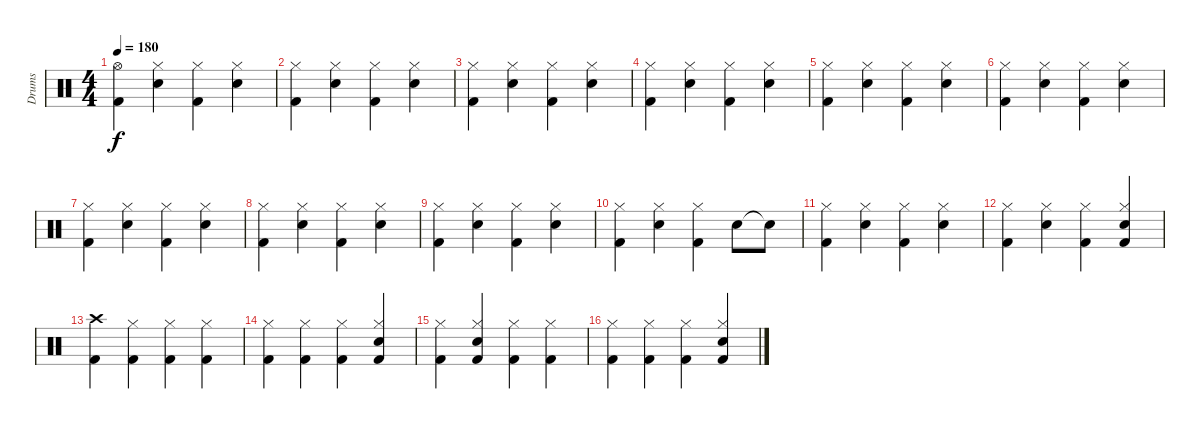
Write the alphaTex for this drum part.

\track ("Drums" "Drums") {instrument percussion}
\staff {score}
\articulation defaults
\ts (4 4)
\tempo 180
\clef neutral
\ks c
("Hi-Hat (open)" "Kick (hit) 2").4{dy f} ("Hi-Hat (closed)" "Snare (hit) 2").4 ("Hi-Hat (closed)" "Kick (hit) 2").4 ("Hi-Hat (closed)" "Snare (hit) 2").4 |
("Hi-Hat (closed)" "Kick (hit) 2").4 ("Hi-Hat (closed)" "Snare (hit) 2").4 ("Hi-Hat (closed)" "Kick (hit) 2").4 ("Hi-Hat (closed)" "Snare (hit) 2").4 |
("Hi-Hat (closed)" "Kick (hit) 2").4 ("Hi-Hat (closed)" "Snare (hit) 2").4 ("Hi-Hat (closed)" "Kick (hit) 2").4 ("Hi-Hat (closed)" "Snare (hit) 2").4 |
("Hi-Hat (closed)" "Kick (hit) 2").4 ("Hi-Hat (closed)" "Snare (hit) 2").4 ("Hi-Hat (closed)" "Kick (hit) 2").4 ("Hi-Hat (closed)" "Snare (hit) 2").4 |
("Hi-Hat (closed)" "Kick (hit) 2").4 ("Hi-Hat (closed)" "Snare (hit) 2").4 ("Hi-Hat (closed)" "Kick (hit) 2").4 ("Hi-Hat (closed)" "Snare (hit) 2").4 |
("Hi-Hat (closed)" "Kick (hit) 2").4 ("Hi-Hat (closed)" "Snare (hit) 2").4 ("Hi-Hat (closed)" "Kick (hit) 2").4 ("Hi-Hat (closed)" "Snare (hit) 2").4 |
("Hi-Hat (closed)" "Kick (hit) 2").4 ("Hi-Hat (closed)" "Snare (hit) 2").4 ("Hi-Hat (closed)" "Kick (hit) 2").4 ("Hi-Hat (closed)" "Snare (hit) 2").4 |
("Hi-Hat (closed)" "Kick (hit) 2").4 ("Hi-Hat (closed)" "Snare (hit) 2").4 ("Hi-Hat (closed)" "Kick (hit) 2").4 ("Hi-Hat (closed)" "Snare (hit) 2").4 |
("Hi-Hat (closed)" "Kick (hit) 2").4 ("Hi-Hat (closed)" "Snare (hit) 2").4 ("Hi-Hat (closed)" "Kick (hit) 2").4 ("Hi-Hat (closed)" "Snare (hit) 2").4 |
("Hi-Hat (closed)" "Kick (hit) 2").4 ("Hi-Hat (closed)" "Snare (hit) 2").4 ("Hi-Hat (closed)" "Kick (hit) 2").4 "Snare (hit) 2".8 "Snare (hit) 2"{t}.8 |
("Hi-Hat (closed)" "Kick (hit) 2").4 ("Hi-Hat (closed)" "Snare (hit) 2").4 ("Hi-Hat (closed)" "Kick (hit) 2").4 ("Hi-Hat (closed)" "Snare (hit) 2").4 |
("Hi-Hat (closed)" "Kick (hit) 2").4 ("Hi-Hat (closed)" "Snare (hit) 2").4 ("Hi-Hat (closed)" "Kick (hit) 2").4 ("Hi-Hat (closed)" "Snare (hit) 2" "Kick (hit) 2").4 |
("Crash high (hit)" "Kick (hit) 2").4 ("Hi-Hat (closed)" "Kick (hit) 2").4 ("Hi-Hat (closed)" "Kick (hit) 2").4 ("Hi-Hat (closed)" "Kick (hit) 2").4 |
("Hi-Hat (closed)" "Kick (hit) 2").4 ("Hi-Hat (closed)" "Kick (hit) 2").4 ("Hi-Hat (closed)" "Kick (hit) 2").4 ("Hi-Hat (closed)" "Snare (hit) 2" "Kick (hit) 2").4 |
("Hi-Hat (closed)" "Kick (hit) 2").4 ("Hi-Hat (closed)" "Snare (hit) 2" "Kick (hit) 2").4 ("Hi-Hat (closed)" "Kick (hit) 2").4 ("Hi-Hat (closed)" "Kick (hit) 2").4 |
("Hi-Hat (closed)" "Kick (hit) 2").4 ("Hi-Hat (closed)" "Kick (hit) 2").4 ("Hi-Hat (closed)" "Kick (hit) 2").4 ("Hi-Hat (closed)" "Snare (hit) 2" "Kick (hit) 2").4
